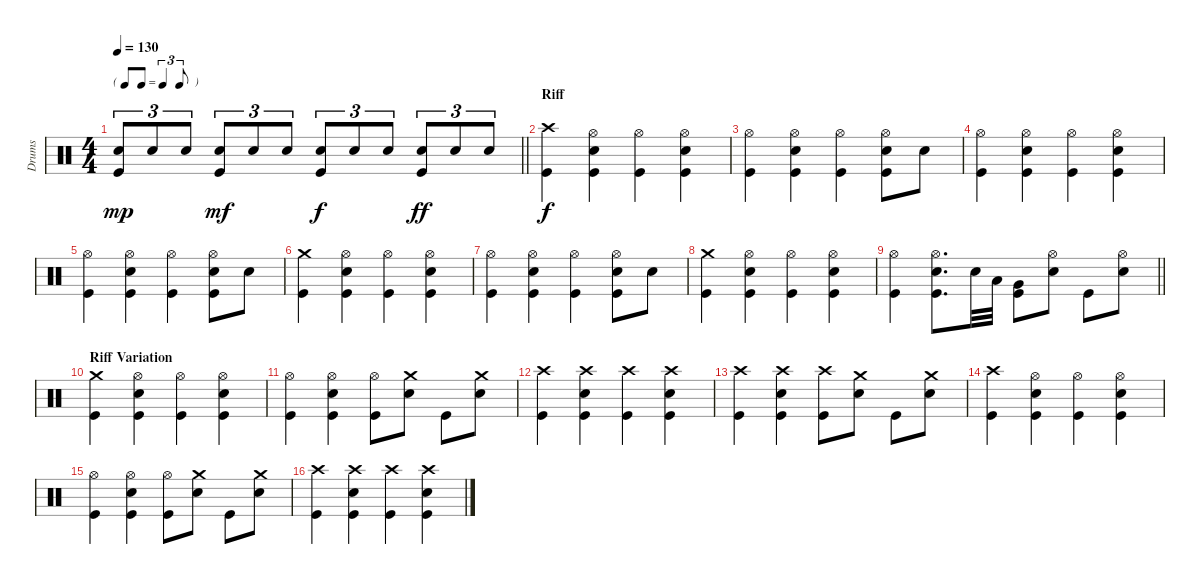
\track ("Drums" "Drums") {instrument percussion}
\staff {score}
\articulation defaults
\ts (4 4)
\tf triplet8th
\tempo 130
\clef neutral
\barLineRight lightlight
\ks c
("Kick (hit)" "Snare (hit) 2").8{tu (3 2) dy mp} "Snare (hit) 2".8{tu (3 2)} "Snare (hit) 2".8{tu (3 2)} ("Kick (hit)" "Snare (hit) 2").8{tu (3 2) dy mf} "Snare (hit) 2".8{tu (3 2)} "Snare (hit) 2".8{tu (3 2)} ("Kick (hit)" "Snare (hit) 2").8{tu (3 2) dy f} "Snare (hit) 2".8{tu (3 2)} "Snare (hit) 2".8{tu (3 2)} ("Kick (hit)" "Snare (hit) 2").8{tu (3 2) dy ff} "Snare (hit) 2".8{tu (3 2)} "Snare (hit) 2".8{tu (3 2)} |
\section ("" "Riff")
("Crash high (hit)" "Kick (hit)").4{dy f} ("Hi-Hat (open)" "Snare (hit) 2" "Kick (hit)").4 ("Hi-Hat (open)" "Kick (hit)").4 ("Hi-Hat (open)" "Snare (hit) 2" "Kick (hit)").4 |
("Hi-Hat (open)" "Kick (hit)").4 ("Hi-Hat (open)" "Snare (hit) 2" "Kick (hit)").4 ("Hi-Hat (open)" "Kick (hit)").4 ("Hi-Hat (open)" "Snare (hit) 2" "Kick (hit)").8 "Snare (hit) 2".8 |
("Hi-Hat (open)" "Kick (hit)").4 ("Hi-Hat (open)" "Snare (hit) 2" "Kick (hit)").4 ("Hi-Hat (open)" "Kick (hit)").4 ("Hi-Hat (open)" "Snare (hit) 2" "Kick (hit)").4 |
("Hi-Hat (open)" "Kick (hit)").4 ("Hi-Hat (open)" "Snare (hit) 2" "Kick (hit)").4 ("Hi-Hat (open)" "Kick (hit)").4 ("Hi-Hat (open)" "Snare (hit) 2" "Kick (hit)").8 "Snare (hit) 2".8 |
("Crash medium (hit)" "Kick (hit)").4 ("Hi-Hat (open)" "Snare (hit) 2" "Kick (hit)").4 ("Hi-Hat (open)" "Kick (hit)").4 ("Hi-Hat (open)" "Snare (hit) 2" "Kick (hit)").4 |
("Hi-Hat (open)" "Kick (hit)").4 ("Hi-Hat (open)" "Snare (hit) 2" "Kick (hit)").4 ("Hi-Hat (open)" "Kick (hit)").4 ("Hi-Hat (open)" "Snare (hit) 2" "Kick (hit)").8 "Snare (hit) 2".8 |
("Crash medium (hit)" "Kick (hit)").4 ("Hi-Hat (open)" "Snare (hit) 2" "Kick (hit)").4 ("Hi-Hat (open)" "Kick (hit)").4 ("Hi-Hat (open)" "Snare (hit) 2" "Kick (hit)").4 |
\barLineRight lightlight
("Hi-Hat (open)" "Kick (hit)").4 ("Hi-Hat (open)" "Snare (hit) 2" "Kick (hit)").8{d} "Snare (hit) 2".32 "Low Tom (hit)".32 ("Very Low Tom (hit)" "Kick (hit)").8 ("Hi-Hat (open)" "Snare (hit) 2").8 "Kick (hit)".8 ("Snare (hit) 2" "Hi-Hat (open)").8 |
\section ("" "Riff Variation")
("Crash medium (hit)" "Kick (hit)").4 ("Hi-Hat (open)" "Snare (hit) 2" "Kick (hit)").4 ("Hi-Hat (open)" "Kick (hit)").4 ("Hi-Hat (open)" "Snare (hit) 2" "Kick (hit)").4 |
("Hi-Hat (open)" "Kick (hit)").4 ("Hi-Hat (open)" "Snare (hit) 2" "Kick (hit)").4 ("Hi-Hat (open)" "Kick (hit)").8 ("Crash medium (hit)" "Snare (hit) 2").8 "Kick (hit)".8 ("Crash medium (hit)" "Snare (hit) 2").8 |
("Crash high (hit)" "Kick (hit)").4 ("Crash high (hit)" "Kick (hit)" "Snare (hit) 2").4 ("Crash high (hit)" "Kick (hit)").4 ("Crash high (hit)" "Kick (hit)" "Snare (hit) 2").4 |
("Crash high (hit)" "Kick (hit)").4 ("Crash high (hit)" "Kick (hit)" "Snare (hit) 2").4 ("Crash high (hit)" "Kick (hit)").8 ("Crash medium (hit)" "Snare (hit) 2").8 "Kick (hit)".8 ("Crash medium (hit)" "Snare (hit) 2").8 |
("Crash high (hit)" "Kick (hit)").4 ("Hi-Hat (open)" "Snare (hit) 2" "Kick (hit)").4 ("Hi-Hat (open)" "Kick (hit)").4 ("Hi-Hat (open)" "Snare (hit) 2" "Kick (hit)").4 |
("Hi-Hat (open)" "Kick (hit)").4 ("Hi-Hat (open)" "Snare (hit) 2" "Kick (hit)").4 ("Hi-Hat (open)" "Kick (hit)").8 ("Crash medium (hit)" "Snare (hit) 2").8 "Kick (hit)".8 ("Crash medium (hit)" "Snare (hit) 2").8 |
("Crash high (hit)" "Kick (hit)").4 ("Crash high (hit)" "Kick (hit)" "Snare (hit) 2").4 ("Crash high (hit)" "Kick (hit)").4 ("Crash high (hit)" "Kick (hit)" "Snare (hit) 2").4
